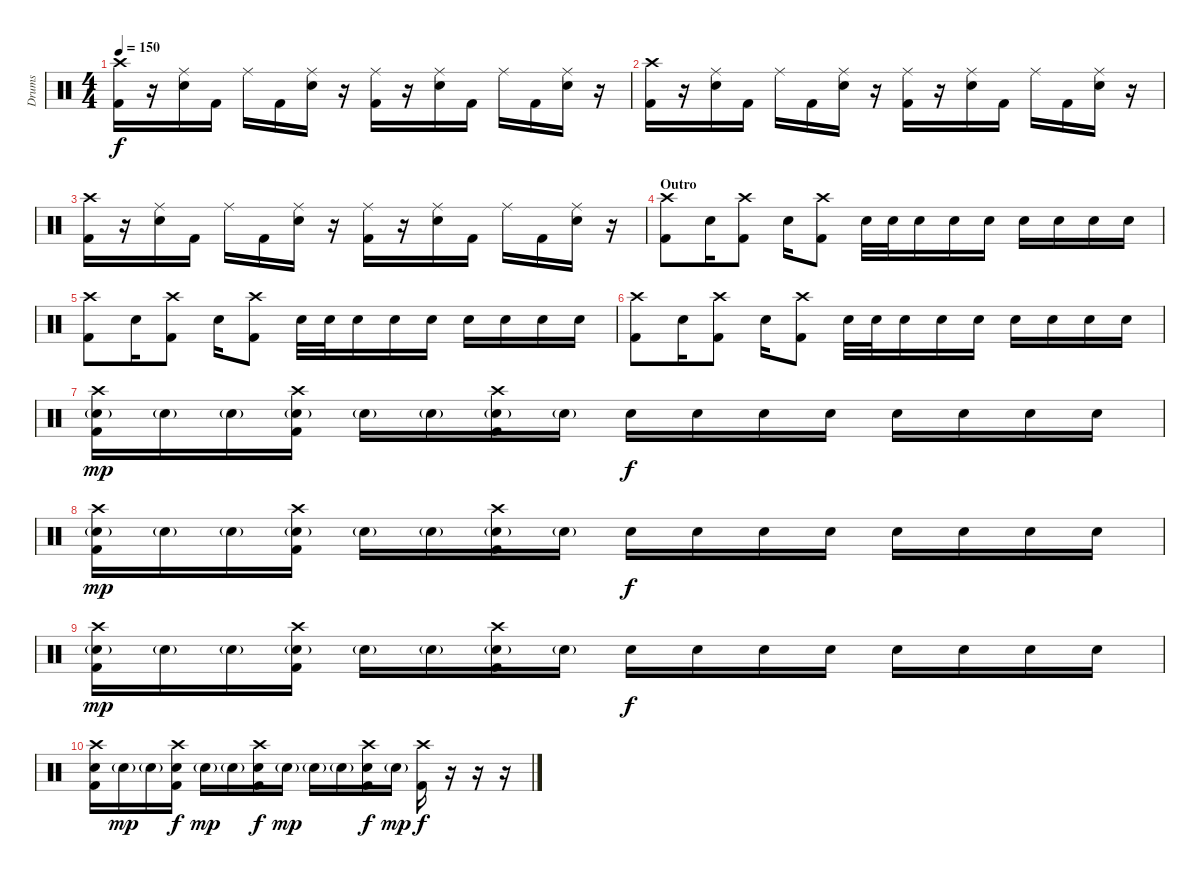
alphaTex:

\track ("Drums" "Drums") {instrument percussion}
\staff {score}
\articulation defaults
\ts (4 4)
\tempo 150
\clef neutral
\ks c
("Crash high (hit)" "Kick (hit) 2").16{dy f} r.16 ("Ride (middle)" "Electric Snare (hit)").16 "Kick (hit) 2".16 "Ride (middle)".16 "Kick (hit) 2".16 ("Ride (middle)" "Electric Snare (hit)").16 r.16 ("Ride (middle)" "Kick (hit) 2").16 r.16 ("Ride (middle)" "Electric Snare (hit)").16 "Kick (hit) 2".16 "Ride (middle)".16 "Kick (hit) 2".16 ("Ride (middle)" "Electric Snare (hit)").16 r.16 |
("Crash high (hit)" "Kick (hit) 2").16 r.16 ("Ride (middle)" "Electric Snare (hit)").16 "Kick (hit) 2".16 "Ride (middle)".16 "Kick (hit) 2".16 ("Ride (middle)" "Electric Snare (hit)").16 r.16 ("Ride (middle)" "Kick (hit) 2").16 r.16 ("Ride (middle)" "Electric Snare (hit)").16 "Kick (hit) 2".16 "Ride (middle)".16 "Kick (hit) 2".16 ("Ride (middle)" "Electric Snare (hit)").16 r.16 |
("Crash high (hit)" "Kick (hit) 2").16 r.16 ("Ride (middle)" "Electric Snare (hit)").16 "Kick (hit) 2".16 "Ride (middle)".16 "Kick (hit) 2".16 ("Ride (middle)" "Electric Snare (hit)").16 r.16 ("Ride (middle)" "Kick (hit) 2").16 r.16 ("Ride (middle)" "Electric Snare (hit)").16 "Kick (hit) 2".16 "Ride (middle)".16 "Kick (hit) 2".16 ("Ride (middle)" "Electric Snare (hit)").16 r.16 |
\section ("" "Outro")
("Crash high (hit)" "Kick (hit) 2").8 "Electric Snare (hit)".16 ("Crash high (hit)" "Kick (hit) 2").8 "Electric Snare (hit)".16 ("Crash high (hit)" "Kick (hit) 2").8 "Electric Snare (hit)".32 "Electric Snare (hit)".32 "Electric Snare (hit)".16 "Electric Snare (hit)".16 "Electric Snare (hit)".16 "Electric Snare (hit)".16 "Electric Snare (hit)".16 "Electric Snare (hit)".16 "Electric Snare (hit)".16 |
("Crash high (hit)" "Kick (hit) 2").8 "Electric Snare (hit)".16 ("Crash high (hit)" "Kick (hit) 2").8 "Electric Snare (hit)".16 ("Crash high (hit)" "Kick (hit) 2").8 "Electric Snare (hit)".32 "Electric Snare (hit)".32 "Electric Snare (hit)".16 "Electric Snare (hit)".16 "Electric Snare (hit)".16 "Electric Snare (hit)".16 "Electric Snare (hit)".16 "Electric Snare (hit)".16 "Electric Snare (hit)".16 |
("Crash high (hit)" "Kick (hit) 2").8 "Electric Snare (hit)".16 ("Crash high (hit)" "Kick (hit) 2").8 "Electric Snare (hit)".16 ("Crash high (hit)" "Kick (hit) 2").8 "Electric Snare (hit)".32 "Electric Snare (hit)".32 "Electric Snare (hit)".16 "Electric Snare (hit)".16 "Electric Snare (hit)".16 "Electric Snare (hit)".16 "Electric Snare (hit)".16 "Electric Snare (hit)".16 "Electric Snare (hit)".16 |
("Crash high (hit)" "Electric Snare (hit)"{g} "Kick (hit) 2").16{dy mp} "Electric Snare (hit)"{g}.16 "Electric Snare (hit)"{g}.16 ("Crash high (hit)" "Electric Snare (hit)"{g} "Kick (hit) 2").16 "Electric Snare (hit)"{g}.16 "Electric Snare (hit)"{g}.16 ("Crash high (hit)" "Electric Snare (hit)"{g} "Kick (hit) 2").16 "Electric Snare (hit)"{g}.16 "Electric Snare (hit)".16{dy f} "Electric Snare (hit)".16 "Electric Snare (hit)".16 "Electric Snare (hit)".16 "Electric Snare (hit)".16 "Electric Snare (hit)".16 "Electric Snare (hit)".16 "Electric Snare (hit)".16 |
("Crash high (hit)" "Electric Snare (hit)"{g} "Kick (hit) 2").16{dy mp} "Electric Snare (hit)"{g}.16 "Electric Snare (hit)"{g}.16 ("Crash high (hit)" "Electric Snare (hit)"{g} "Kick (hit) 2").16 "Electric Snare (hit)"{g}.16 "Electric Snare (hit)"{g}.16 ("Crash high (hit)" "Electric Snare (hit)"{g} "Kick (hit) 2").16 "Electric Snare (hit)"{g}.16 "Electric Snare (hit)".16{dy f} "Electric Snare (hit)".16 "Electric Snare (hit)".16 "Electric Snare (hit)".16 "Electric Snare (hit)".16 "Electric Snare (hit)".16 "Electric Snare (hit)".16 "Electric Snare (hit)".16 |
("Crash high (hit)" "Electric Snare (hit)"{g} "Kick (hit) 2").16{dy mp} "Electric Snare (hit)"{g}.16 "Electric Snare (hit)"{g}.16 ("Crash high (hit)" "Electric Snare (hit)"{g} "Kick (hit) 2").16 "Electric Snare (hit)"{g}.16 "Electric Snare (hit)"{g}.16 ("Crash high (hit)" "Electric Snare (hit)"{g} "Kick (hit) 2").16 "Electric Snare (hit)"{g}.16 "Electric Snare (hit)".16{dy f} "Electric Snare (hit)".16 "Electric Snare (hit)".16 "Electric Snare (hit)".16 "Electric Snare (hit)".16 "Electric Snare (hit)".16 "Electric Snare (hit)".16 "Electric Snare (hit)".16 |
("Crash high (hit)" "Electric Snare (hit)" "Kick (hit) 2").16 "Electric Snare (hit)"{g}.16{dy mp} "Electric Snare (hit)"{g}.16 ("Crash high (hit)" "Electric Snare (hit)" "Kick (hit) 2").16{dy f} "Electric Snare (hit)"{g}.16{dy mp} "Electric Snare (hit)"{g}.16 ("Crash high (hit)" "Electric Snare (hit)" "Kick (hit) 2").16{dy f} "Electric Snare (hit)"{g}.16{dy mp} "Electric Snare (hit)"{g}.16 "Electric Snare (hit)"{g}.16 ("Crash high (hit)" "Electric Snare (hit)" "Kick (hit) 2").16{dy f} "Electric Snare (hit)"{g}.16{dy mp} ("Crash high (hit)" "Kick (hit) 2").16{dy f} r.16 r.16 r.16
